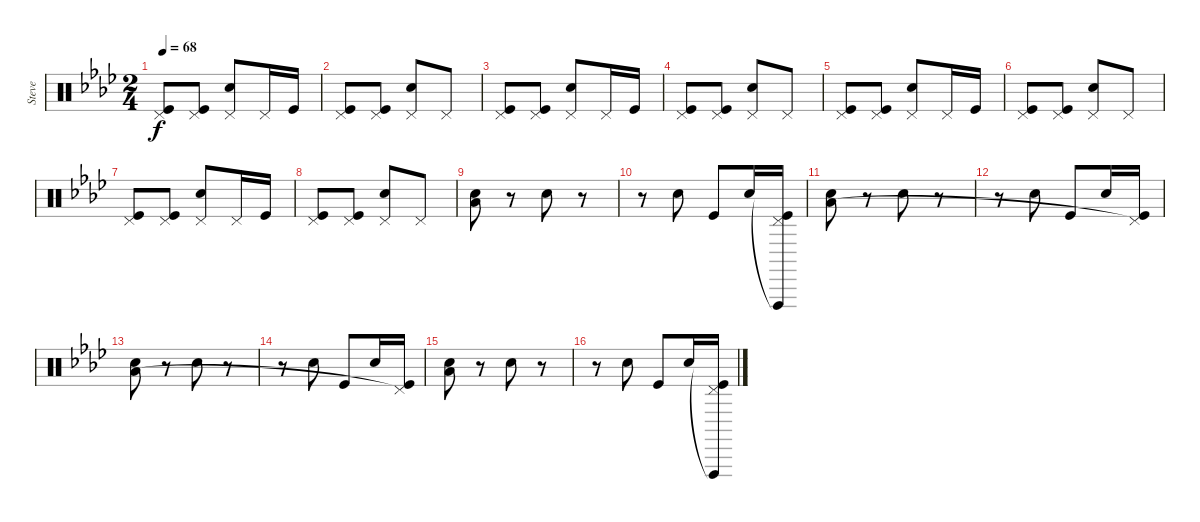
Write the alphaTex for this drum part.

\track ("Steve" "Steve") {instrument percussion}
\staff {score}
\articulation defaults
\ts (2 4)
\tempo 68
\clef neutral
\ks fminor
("Kick (hit)" "Pedal Hi-Hat (hit)").8{dy f} ("Kick (hit)" "Pedal Hi-Hat (hit)").8 ("Electric Snare (hit)" "Pedal Hi-Hat (hit)").8 "Pedal Hi-Hat (hit)".16 "Kick (hit)".16 |
("Kick (hit)" "Pedal Hi-Hat (hit)").8 ("Kick (hit)" "Pedal Hi-Hat (hit)").8 ("Electric Snare (hit)" "Pedal Hi-Hat (hit)").8 "Pedal Hi-Hat (hit)".8 |
("Kick (hit)" "Pedal Hi-Hat (hit)").8 ("Kick (hit)" "Pedal Hi-Hat (hit)").8 ("Electric Snare (hit)" "Pedal Hi-Hat (hit)").8 "Pedal Hi-Hat (hit)".16 "Kick (hit)".16 |
("Kick (hit)" "Pedal Hi-Hat (hit)").8 ("Kick (hit)" "Pedal Hi-Hat (hit)").8 ("Electric Snare (hit)" "Pedal Hi-Hat (hit)").8 "Pedal Hi-Hat (hit)".8 |
("Kick (hit)" "Pedal Hi-Hat (hit)").8 ("Kick (hit)" "Pedal Hi-Hat (hit)").8 ("Electric Snare (hit)" "Pedal Hi-Hat (hit)").8 "Pedal Hi-Hat (hit)".16 "Kick (hit)".16 |
("Kick (hit)" "Pedal Hi-Hat (hit)").8 ("Kick (hit)" "Pedal Hi-Hat (hit)").8 ("Electric Snare (hit)" "Pedal Hi-Hat (hit)").8 "Pedal Hi-Hat (hit)".8 |
("Kick (hit)" "Pedal Hi-Hat (hit)").8 ("Kick (hit)" "Pedal Hi-Hat (hit)").8 ("Electric Snare (hit)" "Pedal Hi-Hat (hit)").8 "Pedal Hi-Hat (hit)".16 "Kick (hit)".16 |
("Kick (hit)" "Pedal Hi-Hat (hit)").8 ("Kick (hit)" "Pedal Hi-Hat (hit)").8 ("Electric Snare (hit)" "Pedal Hi-Hat (hit)").8 "Pedal Hi-Hat (hit)".8 |
("Electric Snare (hit)" "Low Floor Tom (hit)").8 r.8 "Electric Snare (hit)".8 r.8 |
r.8 "Electric Snare (hit)".8 "Kick (hit)".8 "Electric Snare (hit)".16 ("Vibraslap (hit)"{t} "Kick (hit)" "Pedal Hi-Hat (hit)").16 |
("Electric Snare (hit)" "Low Floor Tom (hit)").8 r.8 "Electric Snare (hit)".8 r.8 |
r.8 "Electric Snare (hit)".8 "Kick (hit)".8 "Electric Snare (hit)".16 ("Kick (hit)" "Pedal Hi-Hat (hit)"{t}).16 |
("Electric Snare (hit)" "Low Floor Tom (hit)").8 r.8 "Electric Snare (hit)".8 r.8 |
r.8 "Electric Snare (hit)".8 "Kick (hit)".8 "Electric Snare (hit)".16 ("Kick (hit)" "Pedal Hi-Hat (hit)"{t}).16 |
("Electric Snare (hit)" "Low Floor Tom (hit)").8 r.8 "Electric Snare (hit)".8 r.8 |
r.8 "Electric Snare (hit)".8 "Kick (hit)".8 "Electric Snare (hit)".16 ("Vibraslap (hit)"{t} "Kick (hit)" "Pedal Hi-Hat (hit)").16
